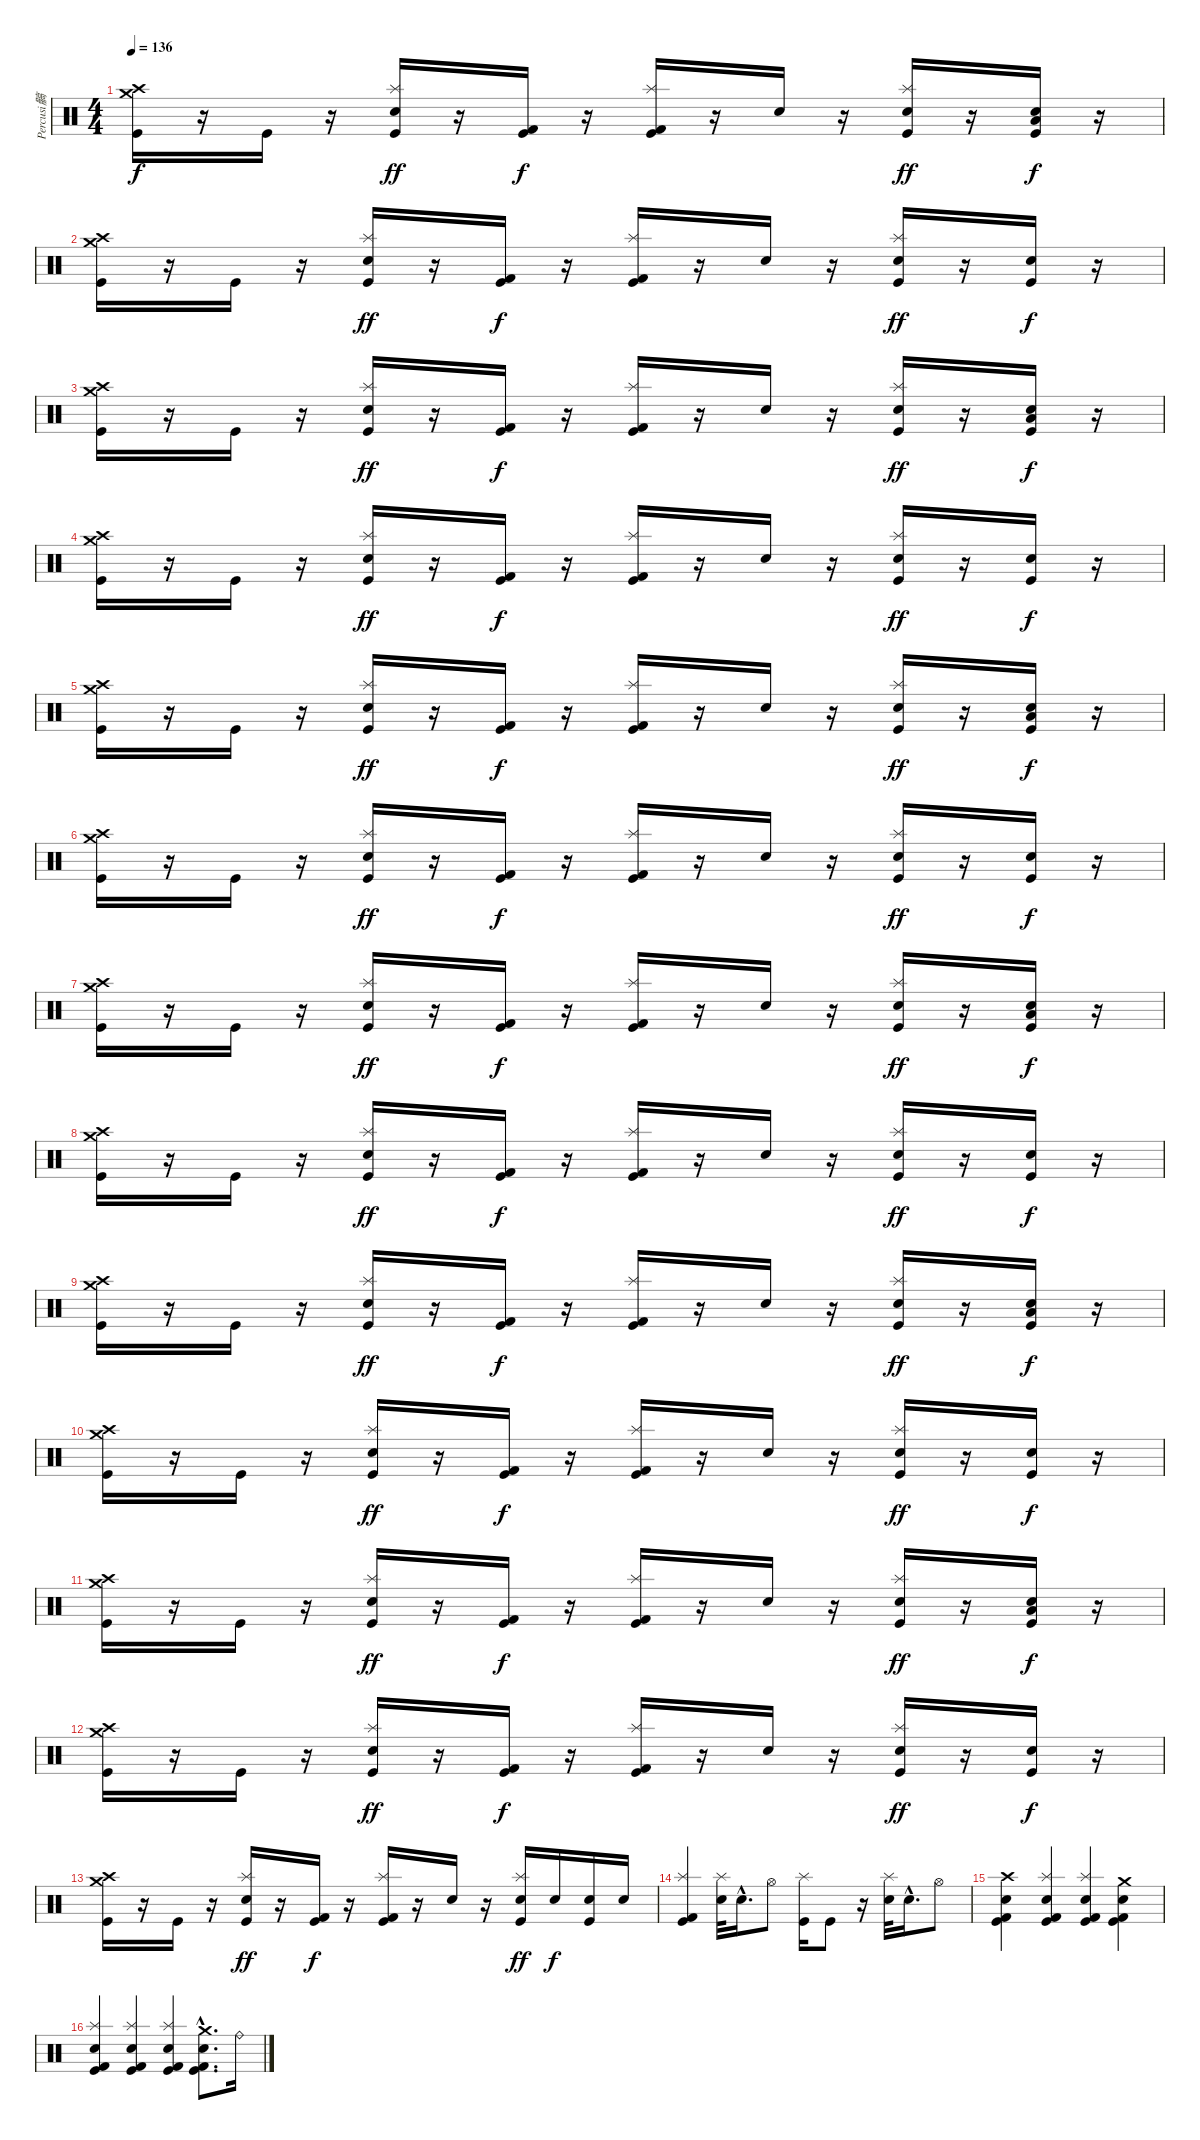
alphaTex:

\track ("Percusi髇" "Percusi髇") {instrument percussion}
\staff {score}
\articulation defaults
\ts (4 4)
\tempo 136
\clef neutral
\ks c
("Crash medium (hit)" "Crash high (hit)" "Kick (hit)").16{dy f} r.16 "Kick (hit)".16 r.16 ("Splash (hit)" "Electric Snare (hit)" "Kick (hit)").16{dy ff} r.16 ("Kick (hit) 2" "Kick (hit)").16{dy f} r.16 ("Splash (hit)" "Kick (hit) 2" "Kick (hit)").16 r.16 "Electric Snare (hit)".16 r.16 ("Splash (hit)" "Electric Snare (hit)" "Kick (hit)").16{dy ff} r.16 ("Low Tom (hit)" "Electric Snare (hit)" "Kick (hit)").16{dy f} r.16 |
("Crash medium (hit)" "Crash high (hit)" "Kick (hit)").16 r.16 "Kick (hit)".16 r.16 ("Splash (hit)" "Electric Snare (hit)" "Kick (hit)").16{dy ff} r.16 ("Kick (hit) 2" "Kick (hit)").16{dy f} r.16 ("Splash (hit)" "Kick (hit) 2" "Kick (hit)").16 r.16 "Electric Snare (hit)".16 r.16 ("Splash (hit)" "Electric Snare (hit)" "Kick (hit)").16{dy ff} r.16 ("Electric Snare (hit)" "Kick (hit)").16{dy f} r.16 |
("Crash medium (hit)" "Crash high (hit)" "Kick (hit)").16 r.16 "Kick (hit)".16 r.16 ("Splash (hit)" "Electric Snare (hit)" "Kick (hit)").16{dy ff} r.16 ("Kick (hit) 2" "Kick (hit)").16{dy f} r.16 ("Splash (hit)" "Kick (hit) 2" "Kick (hit)").16 r.16 "Electric Snare (hit)".16 r.16 ("Splash (hit)" "Electric Snare (hit)" "Kick (hit)").16{dy ff} r.16 ("Low Tom (hit)" "Electric Snare (hit)" "Kick (hit)").16{dy f} r.16 |
("Crash medium (hit)" "Crash high (hit)" "Kick (hit)").16 r.16 "Kick (hit)".16 r.16 ("Splash (hit)" "Electric Snare (hit)" "Kick (hit)").16{dy ff} r.16 ("Kick (hit) 2" "Kick (hit)").16{dy f} r.16 ("Splash (hit)" "Kick (hit) 2" "Kick (hit)").16 r.16 "Electric Snare (hit)".16 r.16 ("Splash (hit)" "Electric Snare (hit)" "Kick (hit)").16{dy ff} r.16 ("Electric Snare (hit)" "Kick (hit)").16{dy f} r.16 |
("Crash medium (hit)" "Crash high (hit)" "Kick (hit)").16 r.16 "Kick (hit)".16 r.16 ("Splash (hit)" "Electric Snare (hit)" "Kick (hit)").16{dy ff} r.16 ("Kick (hit) 2" "Kick (hit)").16{dy f} r.16 ("Splash (hit)" "Kick (hit) 2" "Kick (hit)").16 r.16 "Electric Snare (hit)".16 r.16 ("Splash (hit)" "Electric Snare (hit)" "Kick (hit)").16{dy ff} r.16 ("Low Tom (hit)" "Electric Snare (hit)" "Kick (hit)").16{dy f} r.16 |
("Crash medium (hit)" "Crash high (hit)" "Kick (hit)").16 r.16 "Kick (hit)".16 r.16 ("Splash (hit)" "Electric Snare (hit)" "Kick (hit)").16{dy ff} r.16 ("Kick (hit) 2" "Kick (hit)").16{dy f} r.16 ("Splash (hit)" "Kick (hit) 2" "Kick (hit)").16 r.16 "Electric Snare (hit)".16 r.16 ("Splash (hit)" "Electric Snare (hit)" "Kick (hit)").16{dy ff} r.16 ("Electric Snare (hit)" "Kick (hit)").16{dy f} r.16 |
("Crash medium (hit)" "Crash high (hit)" "Kick (hit)").16 r.16 "Kick (hit)".16 r.16 ("Splash (hit)" "Electric Snare (hit)" "Kick (hit)").16{dy ff} r.16 ("Kick (hit) 2" "Kick (hit)").16{dy f} r.16 ("Splash (hit)" "Kick (hit) 2" "Kick (hit)").16 r.16 "Electric Snare (hit)".16 r.16 ("Splash (hit)" "Electric Snare (hit)" "Kick (hit)").16{dy ff} r.16 ("Low Tom (hit)" "Electric Snare (hit)" "Kick (hit)").16{dy f} r.16 |
("Crash medium (hit)" "Crash high (hit)" "Kick (hit)").16 r.16 "Kick (hit)".16 r.16 ("Splash (hit)" "Electric Snare (hit)" "Kick (hit)").16{dy ff} r.16 ("Kick (hit) 2" "Kick (hit)").16{dy f} r.16 ("Splash (hit)" "Kick (hit) 2" "Kick (hit)").16 r.16 "Electric Snare (hit)".16 r.16 ("Splash (hit)" "Electric Snare (hit)" "Kick (hit)").16{dy ff} r.16 ("Electric Snare (hit)" "Kick (hit)").16{dy f} r.16 |
("Crash medium (hit)" "Crash high (hit)" "Kick (hit)").16 r.16 "Kick (hit)".16 r.16 ("Splash (hit)" "Electric Snare (hit)" "Kick (hit)").16{dy ff} r.16 ("Kick (hit) 2" "Kick (hit)").16{dy f} r.16 ("Splash (hit)" "Kick (hit) 2" "Kick (hit)").16 r.16 "Electric Snare (hit)".16 r.16 ("Splash (hit)" "Electric Snare (hit)" "Kick (hit)").16{dy ff} r.16 ("Low Tom (hit)" "Electric Snare (hit)" "Kick (hit)").16{dy f} r.16 |
("Crash medium (hit)" "Crash high (hit)" "Kick (hit)").16 r.16 "Kick (hit)".16 r.16 ("Splash (hit)" "Electric Snare (hit)" "Kick (hit)").16{dy ff} r.16 ("Kick (hit) 2" "Kick (hit)").16{dy f} r.16 ("Splash (hit)" "Kick (hit) 2" "Kick (hit)").16 r.16 "Electric Snare (hit)".16 r.16 ("Splash (hit)" "Electric Snare (hit)" "Kick (hit)").16{dy ff} r.16 ("Electric Snare (hit)" "Kick (hit)").16{dy f} r.16 |
("Crash medium (hit)" "Crash high (hit)" "Kick (hit)").16 r.16 "Kick (hit)".16 r.16 ("Splash (hit)" "Electric Snare (hit)" "Kick (hit)").16{dy ff} r.16 ("Kick (hit) 2" "Kick (hit)").16{dy f} r.16 ("Splash (hit)" "Kick (hit) 2" "Kick (hit)").16 r.16 "Electric Snare (hit)".16 r.16 ("Splash (hit)" "Electric Snare (hit)" "Kick (hit)").16{dy ff} r.16 ("Low Tom (hit)" "Electric Snare (hit)" "Kick (hit)").16{dy f} r.16 |
("Crash medium (hit)" "Crash high (hit)" "Kick (hit)").16 r.16 "Kick (hit)".16 r.16 ("Splash (hit)" "Electric Snare (hit)" "Kick (hit)").16{dy ff} r.16 ("Kick (hit) 2" "Kick (hit)").16{dy f} r.16 ("Splash (hit)" "Kick (hit) 2" "Kick (hit)").16 r.16 "Electric Snare (hit)".16 r.16 ("Splash (hit)" "Electric Snare (hit)" "Kick (hit)").16{dy ff} r.16 ("Electric Snare (hit)" "Kick (hit)").16{dy f} r.16 |
("Crash medium (hit)" "Crash high (hit)" "Kick (hit)").16 r.16 "Kick (hit)".16 r.16 ("Splash (hit)" "Electric Snare (hit)" "Kick (hit)").16{dy ff} r.16 ("Kick (hit) 2" "Kick (hit)").16{dy f} r.16 ("Splash (hit)" "Kick (hit) 2" "Kick (hit)").16 r.16 "Electric Snare (hit)".16 r.16 ("Splash (hit)" "Electric Snare (hit)" "Kick (hit)").16{dy ff} "Electric Snare (hit)".16{dy f} ("Electric Snare (hit)" "Kick (hit)").16 "Electric Snare (hit)".16 |
("Splash (hit)" "Kick (hit) 2" "Kick (hit)").4 ("Splash (hit)" "Electric Snare (hit)").32 "Electric Snare (hit)"{hac}.16{d} "Hi-Hat (open)".8 ("Splash (hit)" "Kick (hit)").16 "Kick (hit)".8 r.16 ("Splash (hit)" "Electric Snare (hit)").32 "Electric Snare (hit)"{hac}.16{d} "Hi-Hat (open)".8 |
("Electric Snare (hit)" "Crash high (hit)" "Kick (hit) 2" "Kick (hit)").4 ("Electric Snare (hit)" "Splash (hit)" "Kick (hit) 2" "Kick (hit)").4 ("Electric Snare (hit)" "Splash (hit)" "Kick (hit) 2" "Kick (hit)").4 ("Electric Snare (hit)" "Crash medium (hit)" "Kick (hit) 2" "Kick (hit)").4 |
("Electric Snare (hit)" "Splash (hit)" "Kick (hit) 2" "Kick (hit)").4 ("Electric Snare (hit)" "Splash (hit)" "Kick (hit) 2" "Kick (hit)").4 ("Electric Snare (hit)" "Splash (hit)" "Kick (hit) 2" "Kick (hit)").4 ("Electric Snare (hit)"{hac} "Crash medium (hit)"{hac} "Kick (hit) 2"{hac} "Kick (hit)"{hac}).8{d} "Ride (bell)".16
